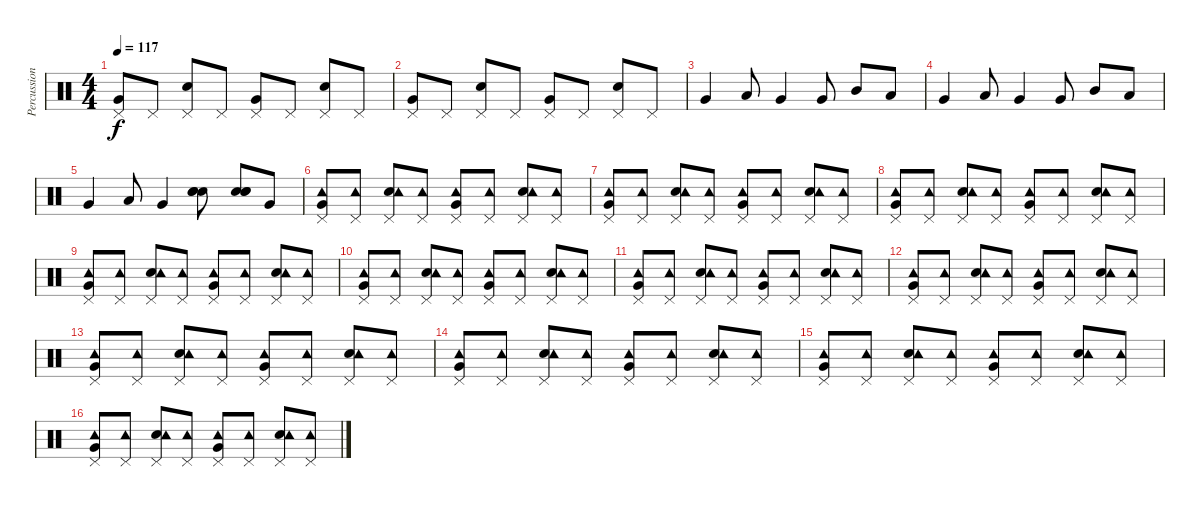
\track ("Percussion" "Percussion") {instrument percussion}
\staff {score}
\articulation defaults
\ts (4 4)
\tempo 117
\clef neutral
\ks c
("Very Low Tom (hit)" "Pedal Hi-Hat (hit)").8{dy f} "Pedal Hi-Hat (hit)".8 ("Electric Snare (hit)" "Pedal Hi-Hat (hit)").8 "Pedal Hi-Hat (hit)".8 ("Very Low Tom (hit)" "Pedal Hi-Hat (hit)").8 "Pedal Hi-Hat (hit)".8 ("Electric Snare (hit)" "Pedal Hi-Hat (hit)").8 "Pedal Hi-Hat (hit)".8 |
("Very Low Tom (hit)" "Pedal Hi-Hat (hit)").8 "Pedal Hi-Hat (hit)".8 ("Electric Snare (hit)" "Pedal Hi-Hat (hit)").8 "Pedal Hi-Hat (hit)".8 ("Very Low Tom (hit)" "Pedal Hi-Hat (hit)").8 "Pedal Hi-Hat (hit)".8 ("Electric Snare (hit)" "Pedal Hi-Hat (hit)").8 "Pedal Hi-Hat (hit)".8 |
"Very Low Tom (hit)".4 "Low Tom (hit)".8 "Very Low Tom (hit)".4 "Very Low Tom (hit)".8 "Mid Tom (hit)".8 "Low Tom (hit)".8 |
"Very Low Tom (hit)".4 "Low Tom (hit)".8 "Very Low Tom (hit)".4 "Very Low Tom (hit)".8 "Mid Tom (hit)".8 "Low Tom (hit)".8 |
"Very Low Tom (hit)".4 "Low Tom (hit)".8 "Very Low Tom (hit)".4 ("Electric Snare (hit)" "Electric Snare (hit)" "Snare (hit) 2").8 ("Electric Snare (hit)" "Electric Snare (hit)" "Snare (hit) 2").8 "Very Low Tom (hit)".8 |
("Very Low Tom (hit)" "Pedal Hi-Hat (hit)" "Tambourine (hit)").8 ("Pedal Hi-Hat (hit)" "Tambourine (hit)").8 ("Electric Snare (hit)" "Pedal Hi-Hat (hit)" "Tambourine (hit)").8 ("Pedal Hi-Hat (hit)" "Tambourine (hit)").8 ("Very Low Tom (hit)" "Pedal Hi-Hat (hit)" "Tambourine (hit)").8 ("Pedal Hi-Hat (hit)" "Tambourine (hit)").8 ("Electric Snare (hit)" "Pedal Hi-Hat (hit)" "Tambourine (hit)").8 ("Pedal Hi-Hat (hit)" "Tambourine (hit)").8 |
("Very Low Tom (hit)" "Pedal Hi-Hat (hit)" "Tambourine (hit)").8 ("Pedal Hi-Hat (hit)" "Tambourine (hit)").8 ("Electric Snare (hit)" "Pedal Hi-Hat (hit)" "Tambourine (hit)").8 ("Pedal Hi-Hat (hit)" "Tambourine (hit)").8 ("Very Low Tom (hit)" "Pedal Hi-Hat (hit)" "Tambourine (hit)").8 ("Pedal Hi-Hat (hit)" "Tambourine (hit)").8 ("Electric Snare (hit)" "Pedal Hi-Hat (hit)" "Tambourine (hit)").8 ("Pedal Hi-Hat (hit)" "Tambourine (hit)").8 |
("Very Low Tom (hit)" "Pedal Hi-Hat (hit)" "Tambourine (hit)").8 ("Pedal Hi-Hat (hit)" "Tambourine (hit)").8 ("Electric Snare (hit)" "Pedal Hi-Hat (hit)" "Tambourine (hit)").8 ("Pedal Hi-Hat (hit)" "Tambourine (hit)").8 ("Very Low Tom (hit)" "Pedal Hi-Hat (hit)" "Tambourine (hit)").8 ("Pedal Hi-Hat (hit)" "Tambourine (hit)").8 ("Electric Snare (hit)" "Pedal Hi-Hat (hit)" "Tambourine (hit)").8 ("Pedal Hi-Hat (hit)" "Tambourine (hit)").8 |
("Very Low Tom (hit)" "Pedal Hi-Hat (hit)" "Tambourine (hit)").8 ("Pedal Hi-Hat (hit)" "Tambourine (hit)").8 ("Electric Snare (hit)" "Pedal Hi-Hat (hit)" "Tambourine (hit)").8 ("Pedal Hi-Hat (hit)" "Tambourine (hit)").8 ("Very Low Tom (hit)" "Pedal Hi-Hat (hit)" "Tambourine (hit)").8 ("Pedal Hi-Hat (hit)" "Tambourine (hit)").8 ("Electric Snare (hit)" "Pedal Hi-Hat (hit)" "Tambourine (hit)").8 ("Pedal Hi-Hat (hit)" "Tambourine (hit)").8 |
("Very Low Tom (hit)" "Pedal Hi-Hat (hit)" "Tambourine (hit)").8 ("Pedal Hi-Hat (hit)" "Tambourine (hit)").8 ("Electric Snare (hit)" "Pedal Hi-Hat (hit)" "Tambourine (hit)").8 ("Pedal Hi-Hat (hit)" "Tambourine (hit)").8 ("Very Low Tom (hit)" "Pedal Hi-Hat (hit)" "Tambourine (hit)").8 ("Pedal Hi-Hat (hit)" "Tambourine (hit)").8 ("Electric Snare (hit)" "Pedal Hi-Hat (hit)" "Tambourine (hit)").8 ("Pedal Hi-Hat (hit)" "Tambourine (hit)").8 |
("Very Low Tom (hit)" "Pedal Hi-Hat (hit)" "Tambourine (hit)").8 ("Pedal Hi-Hat (hit)" "Tambourine (hit)").8 ("Electric Snare (hit)" "Pedal Hi-Hat (hit)" "Tambourine (hit)").8 ("Pedal Hi-Hat (hit)" "Tambourine (hit)").8 ("Very Low Tom (hit)" "Pedal Hi-Hat (hit)" "Tambourine (hit)").8 ("Pedal Hi-Hat (hit)" "Tambourine (hit)").8 ("Electric Snare (hit)" "Pedal Hi-Hat (hit)" "Tambourine (hit)").8 ("Pedal Hi-Hat (hit)" "Tambourine (hit)").8 |
("Very Low Tom (hit)" "Pedal Hi-Hat (hit)" "Tambourine (hit)").8 ("Pedal Hi-Hat (hit)" "Tambourine (hit)").8 ("Electric Snare (hit)" "Pedal Hi-Hat (hit)" "Tambourine (hit)").8 ("Pedal Hi-Hat (hit)" "Tambourine (hit)").8 ("Very Low Tom (hit)" "Pedal Hi-Hat (hit)" "Tambourine (hit)").8 ("Pedal Hi-Hat (hit)" "Tambourine (hit)").8 ("Electric Snare (hit)" "Pedal Hi-Hat (hit)" "Tambourine (hit)").8 ("Pedal Hi-Hat (hit)" "Tambourine (hit)").8 |
("Very Low Tom (hit)" "Pedal Hi-Hat (hit)" "Tambourine (hit)").8 ("Pedal Hi-Hat (hit)" "Tambourine (hit)").8 ("Electric Snare (hit)" "Pedal Hi-Hat (hit)" "Tambourine (hit)").8 ("Pedal Hi-Hat (hit)" "Tambourine (hit)").8 ("Very Low Tom (hit)" "Pedal Hi-Hat (hit)" "Tambourine (hit)").8 ("Pedal Hi-Hat (hit)" "Tambourine (hit)").8 ("Electric Snare (hit)" "Pedal Hi-Hat (hit)" "Tambourine (hit)").8 ("Pedal Hi-Hat (hit)" "Tambourine (hit)").8 |
("Very Low Tom (hit)" "Pedal Hi-Hat (hit)" "Tambourine (hit)").8 ("Pedal Hi-Hat (hit)" "Tambourine (hit)").8 ("Electric Snare (hit)" "Pedal Hi-Hat (hit)" "Tambourine (hit)").8 ("Pedal Hi-Hat (hit)" "Tambourine (hit)").8 ("Very Low Tom (hit)" "Pedal Hi-Hat (hit)" "Tambourine (hit)").8 ("Pedal Hi-Hat (hit)" "Tambourine (hit)").8 ("Electric Snare (hit)" "Pedal Hi-Hat (hit)" "Tambourine (hit)").8 ("Pedal Hi-Hat (hit)" "Tambourine (hit)").8 |
("Very Low Tom (hit)" "Pedal Hi-Hat (hit)" "Tambourine (hit)").8 ("Pedal Hi-Hat (hit)" "Tambourine (hit)").8 ("Electric Snare (hit)" "Pedal Hi-Hat (hit)" "Tambourine (hit)").8 ("Pedal Hi-Hat (hit)" "Tambourine (hit)").8 ("Very Low Tom (hit)" "Pedal Hi-Hat (hit)" "Tambourine (hit)").8 ("Pedal Hi-Hat (hit)" "Tambourine (hit)").8 ("Electric Snare (hit)" "Pedal Hi-Hat (hit)" "Tambourine (hit)").8 ("Pedal Hi-Hat (hit)" "Tambourine (hit)").8 |
("Very Low Tom (hit)" "Pedal Hi-Hat (hit)" "Tambourine (hit)").8 ("Pedal Hi-Hat (hit)" "Tambourine (hit)").8 ("Electric Snare (hit)" "Pedal Hi-Hat (hit)" "Tambourine (hit)").8 ("Pedal Hi-Hat (hit)" "Tambourine (hit)").8 ("Very Low Tom (hit)" "Pedal Hi-Hat (hit)" "Tambourine (hit)").8 ("Pedal Hi-Hat (hit)" "Tambourine (hit)").8 ("Electric Snare (hit)" "Pedal Hi-Hat (hit)" "Tambourine (hit)").8 ("Pedal Hi-Hat (hit)" "Tambourine (hit)").8
